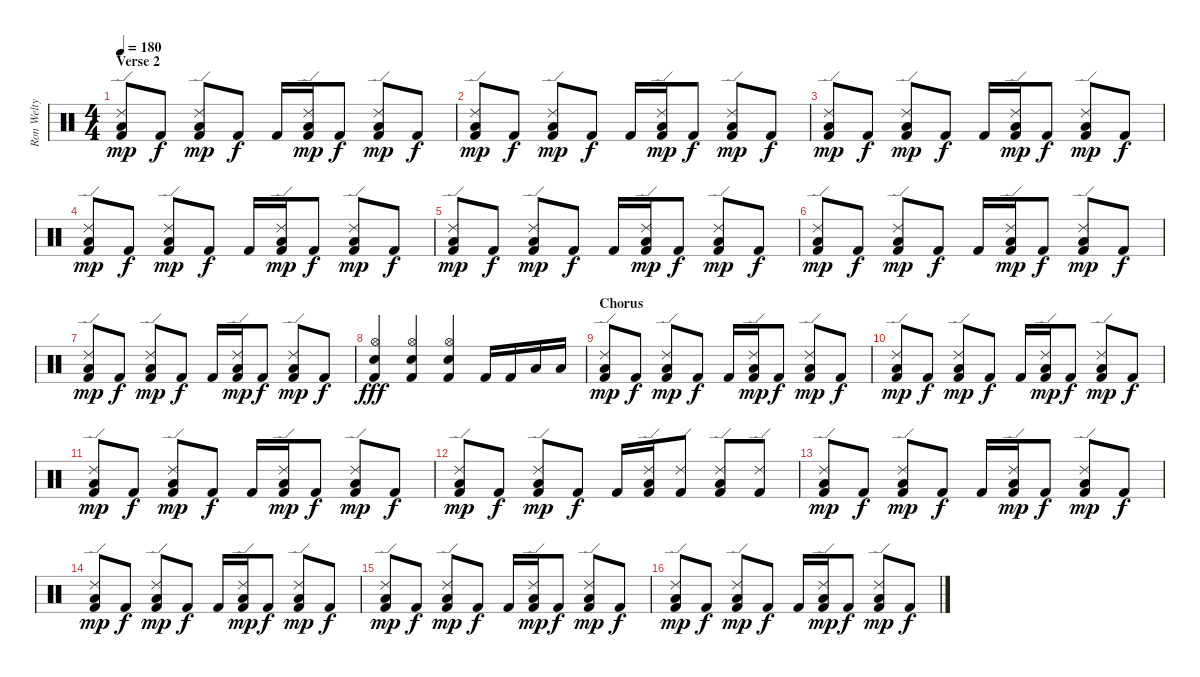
\track ("Ron Welty" "Ron Welty") {instrument percussion}
\staff {score}
\articulation defaults
\ts (4 4)
\section ("" "Verse 2")
\tempo 180
\clef neutral
\ks c
("Ride (edge) 2" "Low Tom (hit)" "Kick (hit) 2").8{dy mp} "Kick (hit) 2".8{dy f} ("Ride (edge) 2" "Low Tom (hit)" "Kick (hit) 2").8{dy mp} "Kick (hit) 2".8{dy f} "Kick (hit) 2".16 ("Ride (edge) 2" "Low Tom (hit)" "Kick (hit) 2").16{dy mp} "Kick (hit) 2".8{dy f} ("Ride (edge) 2" "Low Tom (hit)" "Kick (hit) 2").8{dy mp} "Kick (hit) 2".8{dy f} |
("Ride (edge) 2" "Low Tom (hit)" "Kick (hit) 2").8{dy mp} "Kick (hit) 2".8{dy f} ("Ride (edge) 2" "Low Tom (hit)" "Kick (hit) 2").8{dy mp} "Kick (hit) 2".8{dy f} "Kick (hit) 2".16 ("Ride (edge) 2" "Low Tom (hit)" "Kick (hit) 2").16{dy mp} "Kick (hit) 2".8{dy f} ("Ride (edge) 2" "Low Tom (hit)" "Kick (hit) 2").8{dy mp} "Kick (hit) 2".8{dy f} |
("Ride (edge) 2" "Low Tom (hit)" "Kick (hit) 2").8{dy mp} "Kick (hit) 2".8{dy f} ("Ride (edge) 2" "Low Tom (hit)" "Kick (hit) 2").8{dy mp} "Kick (hit) 2".8{dy f} "Kick (hit) 2".16 ("Ride (edge) 2" "Low Tom (hit)" "Kick (hit) 2").16{dy mp} "Kick (hit) 2".8{dy f} ("Ride (edge) 2" "Low Tom (hit)" "Kick (hit) 2").8{dy mp} "Kick (hit) 2".8{dy f} |
("Ride (edge) 2" "Low Tom (hit)" "Kick (hit) 2").8{dy mp} "Kick (hit) 2".8{dy f} ("Ride (edge) 2" "Low Tom (hit)" "Kick (hit) 2").8{dy mp} "Kick (hit) 2".8{dy f} "Kick (hit) 2".16 ("Ride (edge) 2" "Low Tom (hit)" "Kick (hit) 2").16{dy mp} "Kick (hit) 2".8{dy f} ("Ride (edge) 2" "Low Tom (hit)" "Kick (hit) 2").8{dy mp} "Kick (hit) 2".8{dy f} |
("Ride (edge) 2" "Low Tom (hit)" "Kick (hit) 2").8{dy mp} "Kick (hit) 2".8{dy f} ("Ride (edge) 2" "Low Tom (hit)" "Kick (hit) 2").8{dy mp} "Kick (hit) 2".8{dy f} "Kick (hit) 2".16 ("Ride (edge) 2" "Low Tom (hit)" "Kick (hit) 2").16{dy mp} "Kick (hit) 2".8{dy f} ("Ride (edge) 2" "Low Tom (hit)" "Kick (hit) 2").8{dy mp} "Kick (hit) 2".8{dy f} |
("Ride (edge) 2" "Low Tom (hit)" "Kick (hit) 2").8{dy mp} "Kick (hit) 2".8{dy f} ("Ride (edge) 2" "Low Tom (hit)" "Kick (hit) 2").8{dy mp} "Kick (hit) 2".8{dy f} "Kick (hit) 2".16 ("Ride (edge) 2" "Low Tom (hit)" "Kick (hit) 2").16{dy mp} "Kick (hit) 2".8{dy f} ("Ride (edge) 2" "Low Tom (hit)" "Kick (hit) 2").8{dy mp} "Kick (hit) 2".8{dy f} |
("Ride (edge) 2" "Low Tom (hit)" "Kick (hit) 2").8{dy mp} "Kick (hit) 2".8{dy f} ("Ride (edge) 2" "Low Tom (hit)" "Kick (hit) 2").8{dy mp} "Kick (hit) 2".8{dy f} "Kick (hit) 2".16 ("Ride (edge) 2" "Low Tom (hit)" "Kick (hit) 2").16{dy mp} "Kick (hit) 2".8{dy f} ("Ride (edge) 2" "Low Tom (hit)" "Kick (hit) 2").8{dy mp} "Kick (hit) 2".8{dy f} |
("Hi-Hat (open)" "Electric Snare (hit)" "Kick (hit) 2").4{dy fff} ("Hi-Hat (open)" "Electric Snare (hit)" "Kick (hit) 2").4 ("Hi-Hat (open)" "Electric Snare (hit)" "Kick (hit) 2").4 "Kick (hit) 2".16 "Kick (hit) 2".16 "Low Floor Tom (hit)".16 "Low Tom (hit)".16 |
\section ("" "Chorus")
("Ride (edge) 2" "Low Tom (hit)" "Kick (hit) 2").8{dy mp} "Kick (hit) 2".8{dy f} ("Ride (edge) 2" "Low Tom (hit)" "Kick (hit) 2").8{dy mp} "Kick (hit) 2".8{dy f} "Kick (hit) 2".16 ("Ride (edge) 2" "Low Tom (hit)" "Kick (hit) 2").16{dy mp} "Kick (hit) 2".8{dy f} ("Ride (edge) 2" "Low Tom (hit)" "Kick (hit) 2").8{dy mp} "Kick (hit) 2".8{dy f} |
("Ride (edge) 2" "Low Tom (hit)" "Kick (hit) 2").8{dy mp} "Kick (hit) 2".8{dy f} ("Ride (edge) 2" "Low Tom (hit)" "Kick (hit) 2").8{dy mp} "Kick (hit) 2".8{dy f} "Kick (hit) 2".16 ("Ride (edge) 2" "Low Tom (hit)" "Kick (hit) 2").16{dy mp} "Kick (hit) 2".8{dy f} ("Ride (edge) 2" "Low Tom (hit)" "Kick (hit) 2").8{dy mp} "Kick (hit) 2".8{dy f} |
("Ride (edge) 2" "Low Tom (hit)" "Kick (hit) 2").8{dy mp} "Kick (hit) 2".8{dy f} ("Ride (edge) 2" "Low Tom (hit)" "Kick (hit) 2").8{dy mp} "Kick (hit) 2".8{dy f} "Kick (hit) 2".16 ("Ride (edge) 2" "Low Tom (hit)" "Kick (hit) 2").16{dy mp} "Kick (hit) 2".8{dy f} ("Ride (edge) 2" "Low Tom (hit)" "Kick (hit) 2").8{dy mp} "Kick (hit) 2".8{dy f} |
("Ride (edge) 2" "Low Tom (hit)" "Kick (hit) 2").8{dy mp} "Kick (hit) 2".8{dy f} ("Ride (edge) 2" "Low Tom (hit)" "Kick (hit) 2").8{dy mp} "Kick (hit) 2".8{dy f} "Kick (hit) 2".16 ("Ride (edge) 2" "Low Tom (hit)" "Kick (hit) 2").16 ("Ride (edge) 2" "Kick (hit) 2").8 ("Ride (edge) 2" "Low Tom (hit)" "Kick (hit) 2").8 ("Ride (edge) 2" "Kick (hit) 2").8 |
("Ride (edge) 2" "Low Tom (hit)" "Kick (hit) 2").8{dy mp} "Kick (hit) 2".8{dy f} ("Ride (edge) 2" "Low Tom (hit)" "Kick (hit) 2").8{dy mp} "Kick (hit) 2".8{dy f} "Kick (hit) 2".16 ("Ride (edge) 2" "Low Tom (hit)" "Kick (hit) 2").16{dy mp} "Kick (hit) 2".8{dy f} ("Ride (edge) 2" "Low Tom (hit)" "Kick (hit) 2").8{dy mp} "Kick (hit) 2".8{dy f} |
("Ride (edge) 2" "Low Tom (hit)" "Kick (hit) 2").8{dy mp} "Kick (hit) 2".8{dy f} ("Ride (edge) 2" "Low Tom (hit)" "Kick (hit) 2").8{dy mp} "Kick (hit) 2".8{dy f} "Kick (hit) 2".16 ("Ride (edge) 2" "Low Tom (hit)" "Kick (hit) 2").16{dy mp} "Kick (hit) 2".8{dy f} ("Ride (edge) 2" "Low Tom (hit)" "Kick (hit) 2").8{dy mp} "Kick (hit) 2".8{dy f} |
("Ride (edge) 2" "Low Tom (hit)" "Kick (hit) 2").8{dy mp} "Kick (hit) 2".8{dy f} ("Ride (edge) 2" "Low Tom (hit)" "Kick (hit) 2").8{dy mp} "Kick (hit) 2".8{dy f} "Kick (hit) 2".16 ("Ride (edge) 2" "Low Tom (hit)" "Kick (hit) 2").16{dy mp} "Kick (hit) 2".8{dy f} ("Ride (edge) 2" "Low Tom (hit)" "Kick (hit) 2").8{dy mp} "Kick (hit) 2".8{dy f} |
("Ride (edge) 2" "Low Tom (hit)" "Kick (hit) 2").8{dy mp} "Kick (hit) 2".8{dy f} ("Ride (edge) 2" "Low Tom (hit)" "Kick (hit) 2").8{dy mp} "Kick (hit) 2".8{dy f} "Kick (hit) 2".16 ("Ride (edge) 2" "Low Tom (hit)" "Kick (hit) 2").16{dy mp} "Kick (hit) 2".8{dy f} ("Ride (edge) 2" "Low Tom (hit)" "Kick (hit) 2").8{dy mp} "Kick (hit) 2".8{dy f}
